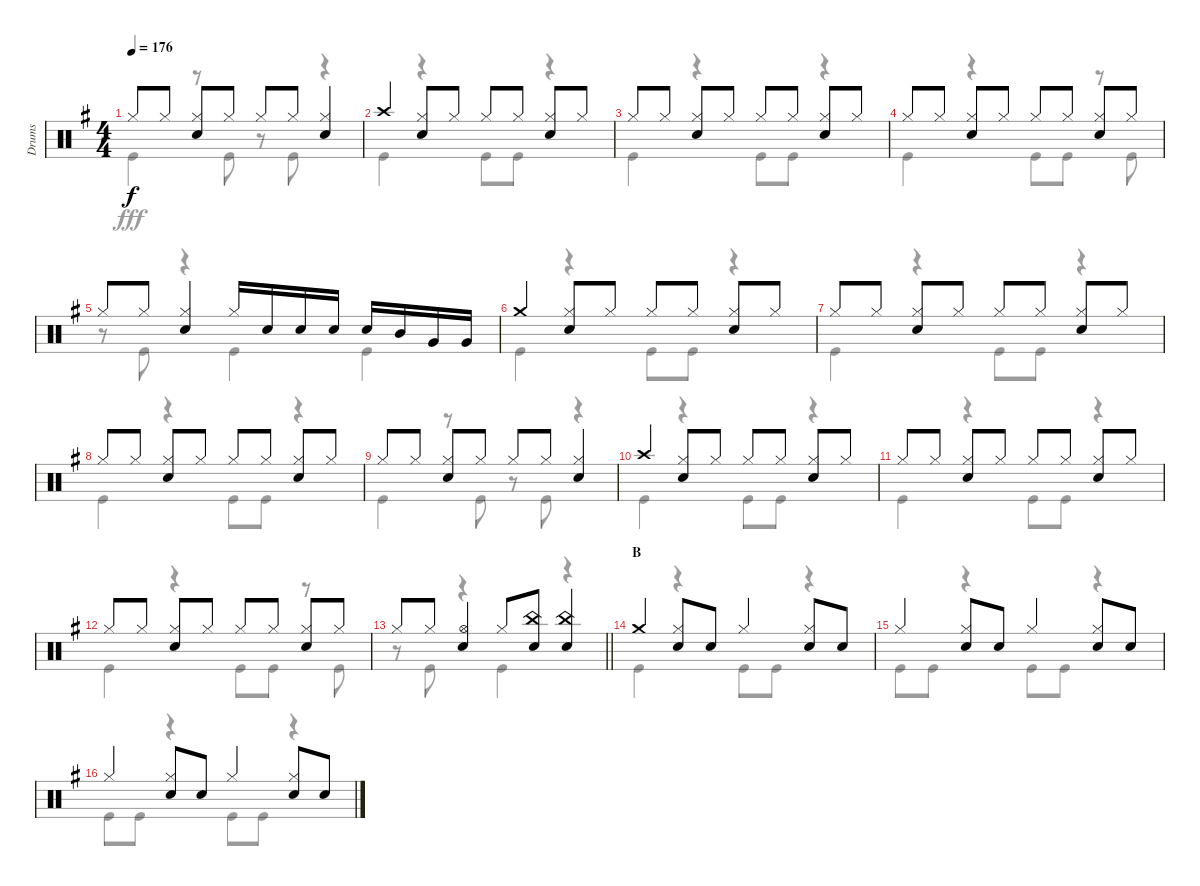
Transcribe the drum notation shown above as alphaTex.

\track ("Drums" "Drums") {instrument percussion}
\staff {score}
\articulation defaults
\voice
\ts (4 4)
\tempo 176
\clef neutral
\ks g "Hi-Hat (closed)".8{dy f} "Hi-Hat (closed)".8
("Hi-Hat (closed)" "Snare (hit) 2").8 "Hi-Hat (closed)".8 "Hi-Hat (closed)".8 "Hi-Hat (closed)".8 ("Hi-Hat (closed)" "Snare (hit) 2").4 |
"Crash high (hit)".4 ("Hi-Hat (closed)" "Snare (hit) 2").8 "Hi-Hat (closed)".8 "Hi-Hat (closed)".8 "Hi-Hat (closed)".8 ("Hi-Hat (closed)" "Snare (hit) 2").8 "Hi-Hat (closed)".8 |
"Hi-Hat (closed)".8 "Hi-Hat (closed)".8 ("Hi-Hat (closed)" "Snare (hit) 2").8 "Hi-Hat (closed)".8 "Hi-Hat (closed)".8 "Hi-Hat (closed)".8 ("Hi-Hat (closed)" "Snare (hit) 2").8 "Hi-Hat (closed)".8 |
"Hi-Hat (closed)".8 "Hi-Hat (closed)".8 ("Hi-Hat (closed)" "Snare (hit) 2").8 "Hi-Hat (closed)".8 "Hi-Hat (closed)".8 "Hi-Hat (closed)".8 ("Hi-Hat (closed)" "Snare (hit) 2").8 "Hi-Hat (closed)".8 |
"Hi-Hat (closed)".8 "Hi-Hat (closed)".8 ("Hi-Hat (closed)" "Snare (hit) 2").4 "Hi-Hat (closed)".16 "Snare (hit) 2".16 "Snare (hit) 2".16 "Snare (hit) 2".16 "Snare (hit) 2".16 "Mid Tom (hit)".16 "Very Low Tom (hit)".16 "Very Low Tom (hit)".16 |
"Crash medium (hit)".4 ("Hi-Hat (closed)" "Snare (hit) 2").8 "Hi-Hat (closed)".8 "Hi-Hat (closed)".8 "Hi-Hat (closed)".8 ("Hi-Hat (closed)" "Snare (hit) 2").8 "Hi-Hat (closed)".8 |
"Hi-Hat (closed)".8 "Hi-Hat (closed)".8 ("Hi-Hat (closed)" "Snare (hit) 2").8 "Hi-Hat (closed)".8 "Hi-Hat (closed)".8 "Hi-Hat (closed)".8 ("Hi-Hat (closed)" "Snare (hit) 2").8 "Hi-Hat (closed)".8 |
"Hi-Hat (closed)".8 "Hi-Hat (closed)".8 ("Hi-Hat (closed)" "Snare (hit) 2").8 "Hi-Hat (closed)".8 "Hi-Hat (closed)".8 "Hi-Hat (closed)".8 ("Hi-Hat (closed)" "Snare (hit) 2").8 "Hi-Hat (closed)".8 |
"Hi-Hat (closed)".8 "Hi-Hat (closed)".8 ("Hi-Hat (closed)" "Snare (hit) 2").8 "Hi-Hat (closed)".8 "Hi-Hat (closed)".8 "Hi-Hat (closed)".8 ("Hi-Hat (closed)" "Snare (hit) 2").4 |
"Crash high (hit)".4 ("Hi-Hat (closed)" "Snare (hit) 2").8 "Hi-Hat (closed)".8 "Hi-Hat (closed)".8 "Hi-Hat (closed)".8 ("Hi-Hat (closed)" "Snare (hit) 2").8 "Hi-Hat (closed)".8 |
"Hi-Hat (closed)".8 "Hi-Hat (closed)".8 ("Hi-Hat (closed)" "Snare (hit) 2").8 "Hi-Hat (closed)".8 "Hi-Hat (closed)".8 "Hi-Hat (closed)".8 ("Hi-Hat (closed)" "Snare (hit) 2").8 "Hi-Hat (closed)".8 |
"Hi-Hat (closed)".8 "Hi-Hat (closed)".8 ("Hi-Hat (closed)" "Snare (hit) 2").8 "Hi-Hat (closed)".8 "Hi-Hat (closed)".8 "Hi-Hat (closed)".8 ("Hi-Hat (closed)" "Snare (hit) 2").8 "Hi-Hat (closed)".8 |
\barLineRight lightlight "Hi-Hat (closed)".8 "Hi-Hat (closed)".8
("Hi-Hat (open)" "Snare (hit) 2").4 "Hi-Hat (closed)".8 ("China (hit)" "Snare (hit) 2").8 ("China (hit)" "Snare (hit) 2").4 |
\section ("" "B")
"Crash medium (hit)".4 ("Hi-Hat (closed)" "Snare (hit) 2").8 "Snare (hit) 2".8 "Hi-Hat (closed)".4 ("Hi-Hat (closed)" "Snare (hit) 2").8 "Snare (hit) 2".8 |
"Hi-Hat (closed)".4 ("Hi-Hat (closed)" "Snare (hit) 2").8 "Snare (hit) 2".8 "Hi-Hat (closed)".4 ("Hi-Hat (closed)" "Snare (hit) 2").8 "Snare (hit) 2".8 |
"Hi-Hat (closed)".4 ("Hi-Hat (closed)" "Snare (hit) 2").8 "Snare (hit) 2".8 "Hi-Hat (closed)".4 ("Hi-Hat (closed)" "Snare (hit) 2").8 "Snare (hit) 2".8
\voice
\clef neutral
\ottava regular
\simile none
\ks g "Kick (hit)".4{dy fff}
r.8 "Kick (hit)".8 r.8 "Kick (hit)".8 r.4 |
"Kick (hit)".4 r.4 "Kick (hit)".8 "Kick (hit)".8 r.4 |
"Kick (hit)".4 r.4 "Kick (hit)".8 "Kick (hit)".8 r.4 |
"Kick (hit)".4 r.4 "Kick (hit)".8 "Kick (hit)".8 r.8 "Kick (hit)".8 |
r.8 "Kick (hit)".8 r.4 "Kick (hit)".4 "Kick (hit)".4 |
"Kick (hit)".4 r.4 "Kick (hit)".8 "Kick (hit)".8 r.4 |
"Kick (hit)".4 r.4 "Kick (hit)".8 "Kick (hit)".8 r.4 |
"Kick (hit)".4 r.4 "Kick (hit)".8 "Kick (hit)".8 r.4 |
"Kick (hit)".4 r.8 "Kick (hit)".8 r.8 "Kick (hit)".8 r.4 |
"Kick (hit)".4 r.4 "Kick (hit)".8 "Kick (hit)".8 r.4 |
"Kick (hit)".4 r.4 "Kick (hit)".8 "Kick (hit)".8 r.4 |
"Kick (hit)".4 r.4 "Kick (hit)".8 "Kick (hit)".8 r.8 "Kick (hit)".8 |
\barLineRight lightlight
r.8 "Kick (hit)".8 r.4 "Kick (hit)".4 r.4 |
"Kick (hit)".4 r.4 "Kick (hit)".8 "Kick (hit)".8 r.4 |
"Kick (hit)".8 "Kick (hit)".8 r.4 "Kick (hit)".8 "Kick (hit)".8 r.4 |
"Kick (hit)".8 "Kick (hit)".8 r.4 "Kick (hit)".8 "Kick (hit)".8 r.4
